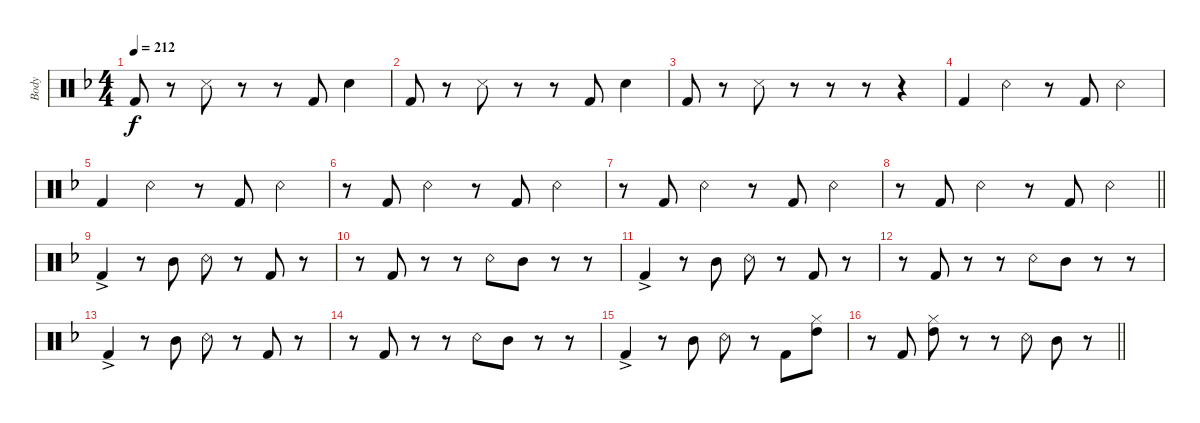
\track ("Body" "Body") {instrument percussion}
\staff {score}
\articulation defaults
\ts (4 4)
\tempo 212
\clef neutral
\ks dminor "Kick (hit) 2".8{dy f}
r.8 "Snare (side stick) 3".8 r.8 r.8 "Kick (hit) 2".8 "Snare (hit) 2".4 |
"Kick (hit) 2".8 r.8 "Snare (side stick) 3".8 r.8 r.8 "Kick (hit) 2".8 "Snare (hit) 2".4 |
"Kick (hit) 2".8 r.8 "Snare (side stick) 3".8 r.8 r.8 r.8 r.4 |
"Kick (hit) 2".4 "Snare (rim shot)".4 r.8 "Kick (hit) 2".8 "Snare (rim shot)".4 |
"Kick (hit) 2".4 "Snare (rim shot)".4 r.8 "Kick (hit) 2".8 "Snare (rim shot)".4 |
r.8 "Kick (hit) 2".8 "Snare (rim shot)".4 r.8 "Kick (hit) 2".8 "Snare (rim shot)".4 |
r.8 "Kick (hit) 2".8 "Snare (rim shot)".4 r.8 "Kick (hit) 2".8 "Snare (rim shot)".4 |
\barLineRight lightlight
r.8 "Kick (hit) 2".8 "Snare (rim shot)".4 r.8 "Kick (hit) 2".8 "Snare (rim shot)".4 |
"Kick (hit) 2"{ac}.4 r.8 "Mid Tom (hit)".8 "Snare (rim shot)".8 r.8 "Kick (hit) 2".8 r.8 |
r.8 "Kick (hit) 2".8 r.8 r.8 "Snare (rim shot)".8 "Mid Tom (hit)".8 r.8 r.8 |
"Kick (hit) 2"{ac}.4 r.8 "Mid Tom (hit)".8 "Snare (rim shot)".8 r.8 "Kick (hit) 2".8 r.8 |
r.8 "Kick (hit) 2".8 r.8 r.8 "Snare (rim shot)".8 "Mid Tom (hit)".8 r.8 r.8 |
"Kick (hit) 2"{ac}.4 r.8 "Mid Tom (hit)".8 "Snare (rim shot)".8 r.8 "Kick (hit) 2".8 r.8 |
r.8 "Kick (hit) 2".8 r.8 r.8 "Snare (rim shot)".8 "Mid Tom (hit)".8 r.8 r.8 |
"Kick (hit) 2"{ac}.4 r.8 "Mid Tom (hit)".8 "Snare (rim shot)".8 r.8 "Kick (hit) 2".8 ("High Tom (hit)" "Hi-Hat (closed)").8 |
\barLineRight lightlight
r.8 "Kick (hit) 2".8 ("High Tom (hit)" "Hi-Hat (closed)").8 r.8 r.8 "Snare (rim shot)".8 "Mid Tom (hit)".8 r.8
